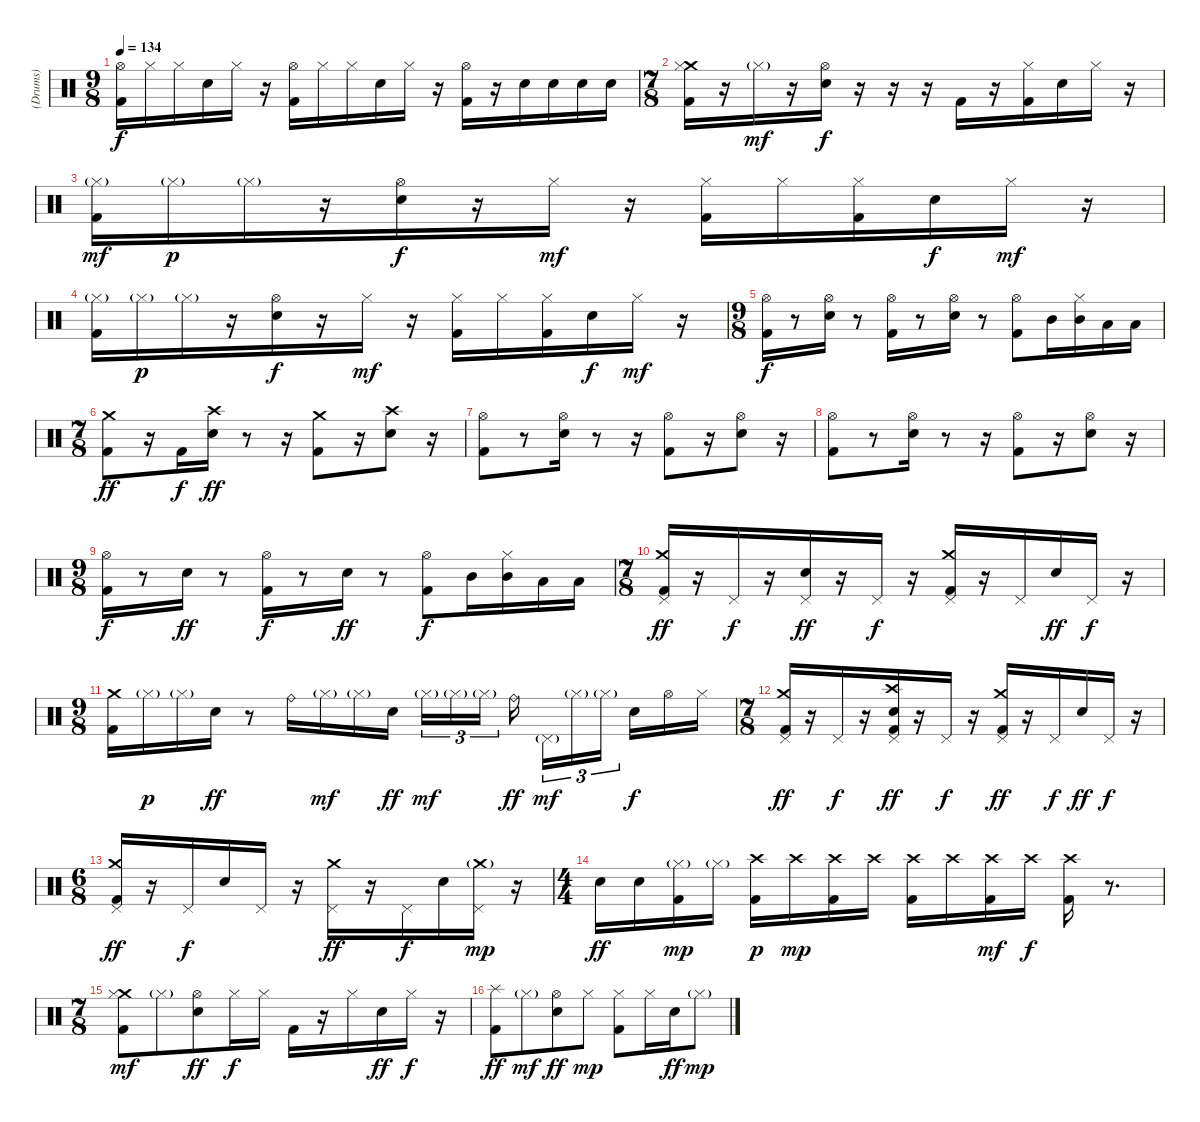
\track ("(Drums)" "(Drums)") {instrument percussion}
\staff {score}
\articulation defaults
\ts (9 8)
\tempo 134
\clef neutral
\ks c
("Hi-Hat (open)" "Kick (hit) 2").16{dy f} "Hi-Hat (closed)".16 "Hi-Hat (closed)".16 "Electric Snare (hit)".16 "Hi-Hat (closed)".16 r.16 ("Hi-Hat (open)" "Kick (hit) 2").16 "Hi-Hat (closed)".16 "Hi-Hat (closed)".16 "Electric Snare (hit)".16 "Hi-Hat (closed)".16 r.16 ("Hi-Hat (open)" "Kick (hit) 2").16 r.16 "Electric Snare (hit)".16 "Electric Snare (hit)".16 "Electric Snare (hit)".16 "Electric Snare (hit)".16 |
\ts (7 8)
("Crash medium (hit)" "Hi-Hat (closed)" "Kick (hit) 2").16 r.16 "Hi-Hat (closed)"{g}.16{dy mf} r.16 ("Hi-Hat (open)" "Electric Snare (hit)").16{dy f} r.16 r.16 r.16 "Kick (hit) 2".16 r.16 ("Hi-Hat (closed)" "Kick (hit) 2").16 "Electric Snare (hit)".16 "Hi-Hat (closed)".16 r.16 |
("Hi-Hat (closed)"{g} "Kick (hit) 2").16{dy mf} "Hi-Hat (closed)"{g}.16{dy p} "Hi-Hat (closed)"{g}.16 r.16 ("Hi-Hat (open)" "Electric Snare (hit)").16{dy f} r.16 "Hi-Hat (closed)".16{dy mf} r.16 ("Hi-Hat (closed)" "Kick (hit) 2").16 "Hi-Hat (closed)".16 ("Hi-Hat (closed)" "Kick (hit) 2").16 "Electric Snare (hit)".16{dy f} "Hi-Hat (closed)".16{dy mf} r.16 |
("Hi-Hat (closed)"{g} "Kick (hit) 2").16 "Hi-Hat (closed)"{g}.16{dy p} "Hi-Hat (closed)"{g}.16 r.16 ("Hi-Hat (open)" "Electric Snare (hit)").16{dy f} r.16 "Hi-Hat (closed)".16{dy mf} r.16 ("Hi-Hat (closed)" "Kick (hit) 2").16 "Hi-Hat (closed)".16 ("Hi-Hat (closed)" "Kick (hit) 2").16 "Electric Snare (hit)".16{dy f} "Hi-Hat (closed)".16{dy mf} r.16 |
\ts (9 8)
("Hi-Hat (open)" "Kick (hit) 2").16{dy f} r.8 ("Hi-Hat (open)" "Electric Snare (hit)").16 r.8 ("Hi-Hat (open)" "Kick (hit) 2").16 r.8 ("Hi-Hat (open)" "Electric Snare (hit)").16 r.8 ("Hi-Hat (open)" "Kick (hit) 2").8 "Mid Tom (hit)".16 ("Hi-Hat (closed)" "Mid Tom (hit)").16 "Low Tom (hit)".16 "Low Tom (hit)".16 |
\ts (7 8)
("Crash medium (hit)" "Kick (hit) 2").8{dy ff} r.16 "Kick (hit) 2".16{dy f} ("Crash high (hit)" "Electric Snare (hit)").16{dy ff} r.8 r.16 ("Crash medium (hit)" "Kick (hit) 2").8 r.16 ("Crash high (hit)" "Electric Snare (hit)").8 r.16 |
("Hi-Hat (open)" "Kick (hit) 2").8 r.8 ("Hi-Hat (open)" "Electric Snare (hit)").16 r.8 r.16 ("Hi-Hat (open)" "Kick (hit) 2").8 r.16 ("Hi-Hat (open)" "Electric Snare (hit)").8 r.16 |
("Hi-Hat (open)" "Kick (hit) 2").8 r.8 ("Hi-Hat (open)" "Electric Snare (hit)").16 r.8 r.16 ("Hi-Hat (open)" "Kick (hit) 2").8 r.16 ("Hi-Hat (open)" "Electric Snare (hit)").8 r.16 |
\ts (9 8)
("Hi-Hat (open)" "Kick (hit) 2").16{dy f} r.8 "Electric Snare (hit)".16{dy ff} r.8 ("Hi-Hat (open)" "Kick (hit) 2").16{dy f} r.8 "Electric Snare (hit)".16{dy ff} r.8 ("Hi-Hat (open)" "Kick (hit) 2").8{dy f} "Mid Tom (hit)".16 ("Hi-Hat (closed)" "Mid Tom (hit)").16 "Low Tom (hit)".16 "Low Tom (hit)".16 |
\ts (7 8)
("Crash medium (hit)" "Pedal Hi-Hat (hit)" "Kick (hit) 2").16{dy ff} r.16 "Pedal Hi-Hat (hit)".16{dy f} r.16 ("Pedal Hi-Hat (hit)" "Electric Snare (hit)").16{dy ff} r.16 "Pedal Hi-Hat (hit)".16{dy f} r.16 ("Crash medium (hit)" "Pedal Hi-Hat (hit)" "Kick (hit) 2").16 r.16 "Pedal Hi-Hat (hit)".16 "Electric Snare (hit)".16{dy ff} "Pedal Hi-Hat (hit)".16{dy f} r.16 |
\ts (9 8)
("Crash medium (hit)" "Kick (hit) 2").16 "Hi-Hat (closed)"{g}.16{dy p} "Hi-Hat (closed)"{g}.16 "Electric Snare (hit)".16{dy ff} r.8 "Ride (bell)".16 "Hi-Hat (closed)"{g}.16{dy mf} "Hi-Hat (closed)"{g}.16 "Electric Snare (hit)".16{dy ff} "Hi-Hat (closed)"{g}.16{tu (3 2) dy mf} "Hi-Hat (closed)"{g}.16{tu (3 2)} "Hi-Hat (closed)"{g}.16{tu (3 2)} "Ride (bell)".16{dy ff} "Pedal Hi-Hat (hit)"{g}.16{tu (3 2) dy mf} "Hi-Hat (closed)"{g}.16{tu (3 2)} "Hi-Hat (closed)"{g}.16{tu (3 2)} "Electric Snare (hit)".16{dy f} "Hi-Hat (open)".16 "Hi-Hat (closed)".16 |
\ts (7 8)
("Crash medium (hit)" "Pedal Hi-Hat (hit)" "Kick (hit) 2").16{dy ff} r.16 "Pedal Hi-Hat (hit)".16{dy f} r.16 ("Crash high (hit)" "Pedal Hi-Hat (hit)" "Electric Snare (hit)" "Kick (hit) 2").16{dy ff} r.16 "Pedal Hi-Hat (hit)".16{dy f} r.16 ("Crash medium (hit)" "Pedal Hi-Hat (hit)" "Kick (hit) 2").16{dy ff} r.16 "Pedal Hi-Hat (hit)".16{dy f} "Electric Snare (hit)".16{dy ff} "Pedal Hi-Hat (hit)".16{dy f} r.16 |
\ts (6 8)
("Crash medium (hit)" "Pedal Hi-Hat (hit)" "Kick (hit) 2").16{dy ff} r.16 "Pedal Hi-Hat (hit)".16{dy f} "Electric Snare (hit)".16 "Pedal Hi-Hat (hit)".16 r.16 ("Crash medium (hit)" "Pedal Hi-Hat (hit)").16{dy ff} r.16 "Pedal Hi-Hat (hit)".16{dy f} "Electric Snare (hit)".16 ("Crash medium (hit)"{g} "Pedal Hi-Hat (hit)").16{dy mp} r.16 |
\ts (4 4)
"Electric Snare (hit)".16{dy ff} "Electric Snare (hit)".16 ("Hi-Hat (closed)"{g} "Kick (hit) 2").16{dy mp} "Hi-Hat (closed)"{g}.16 ("Crash high (hit)" "Kick (hit) 2").16{dy p} "Crash high (hit)".16{dy mp} ("Crash high (hit)" "Kick (hit) 2").16 "Crash high (hit)".16 ("Crash high (hit)" "Kick (hit) 2").16 "Crash high (hit)".16 ("Crash high (hit)" "Kick (hit) 2").16{dy mf} "Crash high (hit)".16{dy f} ("Crash high (hit)" "Kick (hit) 2").16 r.8{d} |
\ts (7 8)
("Crash medium (hit)" "Hi-Hat (closed)" "Kick (hit) 2").8{dy mf} "Hi-Hat (closed)"{g}.8 ("Hi-Hat (open)" "Electric Snare (hit)").8{dy ff} "Hi-Hat (closed)".16{dy f} "Hi-Hat (closed)".16 "Kick (hit) 2".16 r.16 "Hi-Hat (closed)".16 "Electric Snare (hit)".16{dy ff} "Hi-Hat (closed)".16{dy f} r.16 |
("Splash (hit)" "Kick (hit) 2").8{dy ff} "Hi-Hat (closed)"{g}.8{dy mf} ("Hi-Hat (open)" "Electric Snare (hit)").8{dy ff} "Hi-Hat (closed)".8{dy mp} ("Hi-Hat (closed)" "Kick (hit) 2").8 "Hi-Hat (closed)".16 "Electric Snare (hit)".16{dy ff} "Hi-Hat (closed)"{g}.8{dy mp}
